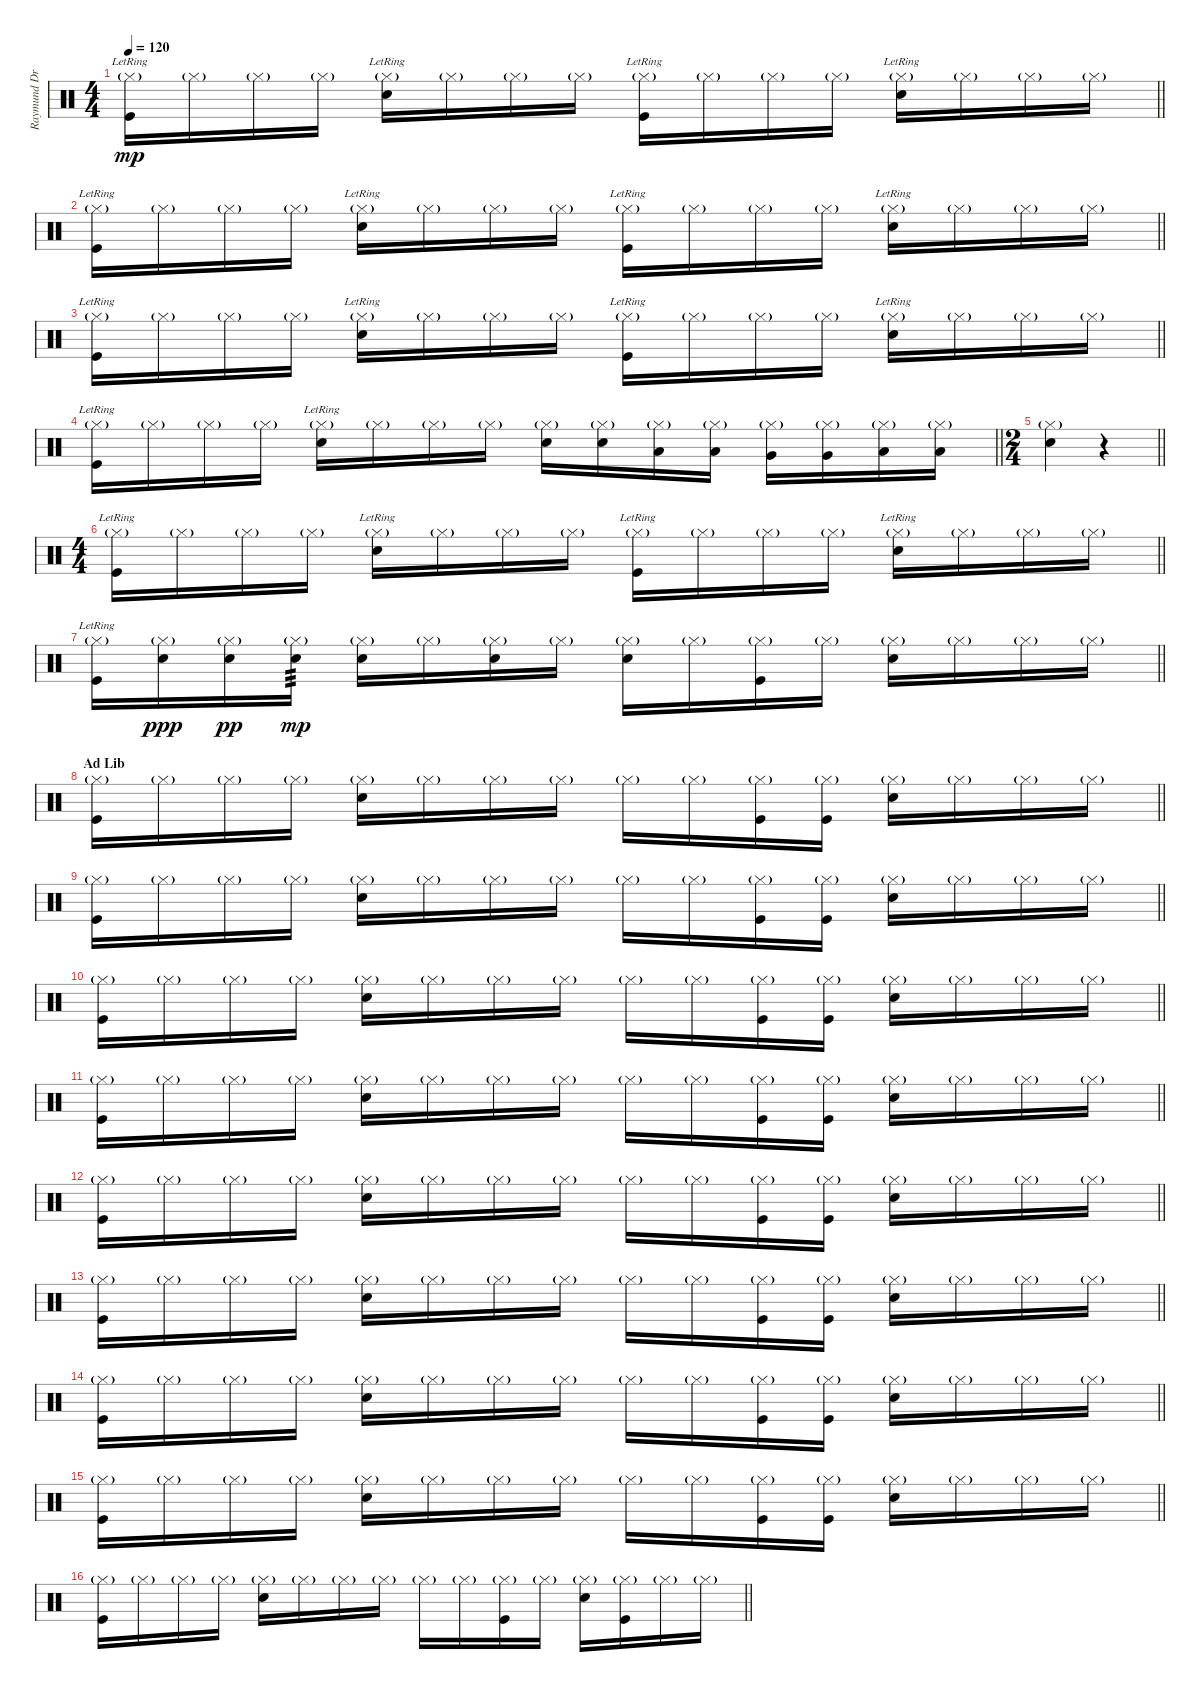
\track ("Raymund Drums" "Raymund Dr") {instrument percussion}
\staff {score}
\articulation defaults
\ts (4 4)
\tempo 120
\clef neutral
\barLineRight lightlight
\ks c
("Hi-Hat (closed)"{g} "Kick (hit)"{lr}).16{dy mp} "Hi-Hat (closed)"{g}.16 "Hi-Hat (closed)"{g}.16 "Hi-Hat (closed)"{g}.16 ("Hi-Hat (closed)"{g} "Snare (hit) 2"{lr}).16 "Hi-Hat (closed)"{g}.16 "Hi-Hat (closed)"{g}.16 "Hi-Hat (closed)"{g}.16 ("Hi-Hat (closed)"{g} "Kick (hit)"{lr}).16 "Hi-Hat (closed)"{g}.16 "Hi-Hat (closed)"{g}.16 "Hi-Hat (closed)"{g}.16 ("Hi-Hat (closed)"{g} "Snare (hit) 2"{lr}).16 "Hi-Hat (closed)"{g}.16 "Hi-Hat (closed)"{g}.16 "Hi-Hat (closed)"{g}.16 |
\barLineRight lightlight
("Hi-Hat (closed)"{g} "Kick (hit)"{lr}).16 "Hi-Hat (closed)"{g}.16 "Hi-Hat (closed)"{g}.16 "Hi-Hat (closed)"{g}.16 ("Hi-Hat (closed)"{g} "Snare (hit) 2"{lr}).16 "Hi-Hat (closed)"{g}.16 "Hi-Hat (closed)"{g}.16 "Hi-Hat (closed)"{g}.16 ("Hi-Hat (closed)"{g} "Kick (hit)"{lr}).16 "Hi-Hat (closed)"{g}.16 "Hi-Hat (closed)"{g}.16 "Hi-Hat (closed)"{g}.16 ("Hi-Hat (closed)"{g} "Snare (hit) 2"{lr}).16 "Hi-Hat (closed)"{g}.16 "Hi-Hat (closed)"{g}.16 "Hi-Hat (closed)"{g}.16 |
\barLineRight lightlight
("Hi-Hat (closed)"{g} "Kick (hit)"{lr}).16 "Hi-Hat (closed)"{g}.16 "Hi-Hat (closed)"{g}.16 "Hi-Hat (closed)"{g}.16 ("Hi-Hat (closed)"{g} "Snare (hit) 2"{lr}).16 "Hi-Hat (closed)"{g}.16 "Hi-Hat (closed)"{g}.16 "Hi-Hat (closed)"{g}.16 ("Hi-Hat (closed)"{g} "Kick (hit)"{lr}).16 "Hi-Hat (closed)"{g}.16 "Hi-Hat (closed)"{g}.16 "Hi-Hat (closed)"{g}.16 ("Hi-Hat (closed)"{g} "Snare (hit) 2"{lr}).16 "Hi-Hat (closed)"{g}.16 "Hi-Hat (closed)"{g}.16 "Hi-Hat (closed)"{g}.16 |
\barLineRight lightlight
("Hi-Hat (closed)"{g} "Kick (hit)"{lr}).16 "Hi-Hat (closed)"{g}.16 "Hi-Hat (closed)"{g}.16 "Hi-Hat (closed)"{g}.16 ("Hi-Hat (closed)"{g} "Snare (hit) 2"{lr}).16 "Hi-Hat (closed)"{g}.16 "Hi-Hat (closed)"{g}.16 "Hi-Hat (closed)"{g}.16 ("Hi-Hat (closed)"{g} "Snare (hit) 2").16 ("Hi-Hat (closed)"{g} "Snare (hit) 2").16 ("Hi-Hat (closed)"{g} "Low Tom (hit)").16 ("Hi-Hat (closed)"{g} "Low Tom (hit)").16 ("Hi-Hat (closed)"{g} "Very Low Tom (hit)").16 ("Hi-Hat (closed)"{g} "Very Low Tom (hit)").16 ("Hi-Hat (closed)"{g} "Low Floor Tom (hit)").16 ("Hi-Hat (closed)"{g} "Low Floor Tom (hit)").16 |
\ts (2 4)
\barLineRight lightlight
("Hi-Hat (closed)"{g} "Snare (hit) 2").4 r.4 |
\ts (4 4)
\barLineRight lightlight
("Hi-Hat (closed)"{g} "Kick (hit)"{lr}).16 "Hi-Hat (closed)"{g}.16 "Hi-Hat (closed)"{g}.16 "Hi-Hat (closed)"{g}.16 ("Hi-Hat (closed)"{g} "Snare (hit) 2"{lr}).16 "Hi-Hat (closed)"{g}.16 "Hi-Hat (closed)"{g}.16 "Hi-Hat (closed)"{g}.16 ("Hi-Hat (closed)"{g} "Kick (hit)"{lr}).16 "Hi-Hat (closed)"{g}.16 "Hi-Hat (closed)"{g}.16 "Hi-Hat (closed)"{g}.16 ("Hi-Hat (closed)"{g} "Snare (hit) 2"{lr}).16 "Hi-Hat (closed)"{g}.16 "Hi-Hat (closed)"{g}.16 "Hi-Hat (closed)"{g}.16 |
\barLineRight lightlight
("Hi-Hat (closed)"{g} "Kick (hit)"{lr}).16 ("Hi-Hat (closed)"{g} "Snare (hit) 2").16{dy ppp} ("Hi-Hat (closed)"{g} "Snare (hit) 2").16{dy pp} ("Hi-Hat (closed)"{g} "Snare (hit) 2").16{tp 3 dy mp} ("Hi-Hat (closed)"{g} "Snare (hit) 2").16 "Hi-Hat (closed)"{g}.16 ("Hi-Hat (closed)"{g} "Snare (hit) 2").16 "Hi-Hat (closed)"{g}.16 ("Hi-Hat (closed)"{g} "Snare (hit) 2").16 "Hi-Hat (closed)"{g}.16 ("Hi-Hat (closed)"{g} "Kick (hit)").16 "Hi-Hat (closed)"{g}.16 ("Hi-Hat (closed)"{g} "Snare (hit) 2").16 "Hi-Hat (closed)"{g}.16 "Hi-Hat (closed)"{g}.16 "Hi-Hat (closed)"{g}.16 |
\section ("" "Ad Lib")
\barLineRight lightlight
("Hi-Hat (closed)"{g} "Kick (hit)").16 "Hi-Hat (closed)"{g}.16 "Hi-Hat (closed)"{g}.16 "Hi-Hat (closed)"{g}.16 ("Hi-Hat (closed)"{g} "Snare (hit) 2").16 "Hi-Hat (closed)"{g}.16 "Hi-Hat (closed)"{g}.16 "Hi-Hat (closed)"{g}.16 "Hi-Hat (closed)"{g}.16 "Hi-Hat (closed)"{g}.16 ("Hi-Hat (closed)"{g} "Kick (hit)").16 ("Hi-Hat (closed)"{g} "Kick (hit)").16 ("Hi-Hat (closed)"{g} "Snare (hit) 2").16 "Hi-Hat (closed)"{g}.16 "Hi-Hat (closed)"{g}.16 "Hi-Hat (closed)"{g}.16 |
\barLineRight lightlight
("Hi-Hat (closed)"{g} "Kick (hit)").16 "Hi-Hat (closed)"{g}.16 "Hi-Hat (closed)"{g}.16 "Hi-Hat (closed)"{g}.16 ("Hi-Hat (closed)"{g} "Snare (hit) 2").16 "Hi-Hat (closed)"{g}.16 "Hi-Hat (closed)"{g}.16 "Hi-Hat (closed)"{g}.16 "Hi-Hat (closed)"{g}.16 "Hi-Hat (closed)"{g}.16 ("Hi-Hat (closed)"{g} "Kick (hit)").16 ("Hi-Hat (closed)"{g} "Kick (hit)").16 ("Hi-Hat (closed)"{g} "Snare (hit) 2").16 "Hi-Hat (closed)"{g}.16 "Hi-Hat (closed)"{g}.16 "Hi-Hat (closed)"{g}.16 |
\barLineRight lightlight
("Hi-Hat (closed)"{g} "Kick (hit)").16 "Hi-Hat (closed)"{g}.16 "Hi-Hat (closed)"{g}.16 "Hi-Hat (closed)"{g}.16 ("Hi-Hat (closed)"{g} "Snare (hit) 2").16 "Hi-Hat (closed)"{g}.16 "Hi-Hat (closed)"{g}.16 "Hi-Hat (closed)"{g}.16 "Hi-Hat (closed)"{g}.16 "Hi-Hat (closed)"{g}.16 ("Hi-Hat (closed)"{g} "Kick (hit)").16 ("Hi-Hat (closed)"{g} "Kick (hit)").16 ("Hi-Hat (closed)"{g} "Snare (hit) 2").16 "Hi-Hat (closed)"{g}.16 "Hi-Hat (closed)"{g}.16 "Hi-Hat (closed)"{g}.16 |
\barLineRight lightlight
("Hi-Hat (closed)"{g} "Kick (hit)").16 "Hi-Hat (closed)"{g}.16 "Hi-Hat (closed)"{g}.16 "Hi-Hat (closed)"{g}.16 ("Hi-Hat (closed)"{g} "Snare (hit) 2").16 "Hi-Hat (closed)"{g}.16 "Hi-Hat (closed)"{g}.16 "Hi-Hat (closed)"{g}.16 "Hi-Hat (closed)"{g}.16 "Hi-Hat (closed)"{g}.16 ("Hi-Hat (closed)"{g} "Kick (hit)").16 ("Hi-Hat (closed)"{g} "Kick (hit)").16 ("Hi-Hat (closed)"{g} "Snare (hit) 2").16 "Hi-Hat (closed)"{g}.16 "Hi-Hat (closed)"{g}.16 "Hi-Hat (closed)"{g}.16 |
\barLineRight lightlight
("Hi-Hat (closed)"{g} "Kick (hit)").16 "Hi-Hat (closed)"{g}.16 "Hi-Hat (closed)"{g}.16 "Hi-Hat (closed)"{g}.16 ("Hi-Hat (closed)"{g} "Snare (hit) 2").16 "Hi-Hat (closed)"{g}.16 "Hi-Hat (closed)"{g}.16 "Hi-Hat (closed)"{g}.16 "Hi-Hat (closed)"{g}.16 "Hi-Hat (closed)"{g}.16 ("Hi-Hat (closed)"{g} "Kick (hit)").16 ("Hi-Hat (closed)"{g} "Kick (hit)").16 ("Hi-Hat (closed)"{g} "Snare (hit) 2").16 "Hi-Hat (closed)"{g}.16 "Hi-Hat (closed)"{g}.16 "Hi-Hat (closed)"{g}.16 |
\barLineRight lightlight
("Hi-Hat (closed)"{g} "Kick (hit)").16 "Hi-Hat (closed)"{g}.16 "Hi-Hat (closed)"{g}.16 "Hi-Hat (closed)"{g}.16 ("Hi-Hat (closed)"{g} "Snare (hit) 2").16 "Hi-Hat (closed)"{g}.16 "Hi-Hat (closed)"{g}.16 "Hi-Hat (closed)"{g}.16 "Hi-Hat (closed)"{g}.16 "Hi-Hat (closed)"{g}.16 ("Hi-Hat (closed)"{g} "Kick (hit)").16 ("Hi-Hat (closed)"{g} "Kick (hit)").16 ("Hi-Hat (closed)"{g} "Snare (hit) 2").16 "Hi-Hat (closed)"{g}.16 "Hi-Hat (closed)"{g}.16 "Hi-Hat (closed)"{g}.16 |
\barLineRight lightlight
("Hi-Hat (closed)"{g} "Kick (hit)").16 "Hi-Hat (closed)"{g}.16 "Hi-Hat (closed)"{g}.16 "Hi-Hat (closed)"{g}.16 ("Hi-Hat (closed)"{g} "Snare (hit) 2").16 "Hi-Hat (closed)"{g}.16 "Hi-Hat (closed)"{g}.16 "Hi-Hat (closed)"{g}.16 "Hi-Hat (closed)"{g}.16 "Hi-Hat (closed)"{g}.16 ("Hi-Hat (closed)"{g} "Kick (hit)").16 ("Hi-Hat (closed)"{g} "Kick (hit)").16 ("Hi-Hat (closed)"{g} "Snare (hit) 2").16 "Hi-Hat (closed)"{g}.16 "Hi-Hat (closed)"{g}.16 "Hi-Hat (closed)"{g}.16 |
\barLineRight lightlight
("Hi-Hat (closed)"{g} "Kick (hit)").16 "Hi-Hat (closed)"{g}.16 "Hi-Hat (closed)"{g}.16 "Hi-Hat (closed)"{g}.16 ("Hi-Hat (closed)"{g} "Snare (hit) 2").16 "Hi-Hat (closed)"{g}.16 "Hi-Hat (closed)"{g}.16 "Hi-Hat (closed)"{g}.16 "Hi-Hat (closed)"{g}.16 "Hi-Hat (closed)"{g}.16 ("Hi-Hat (closed)"{g} "Kick (hit)").16 ("Hi-Hat (closed)"{g} "Kick (hit)").16 ("Hi-Hat (closed)"{g} "Snare (hit) 2").16 "Hi-Hat (closed)"{g}.16 "Hi-Hat (closed)"{g}.16 "Hi-Hat (closed)"{g}.16 |
\barLineRight lightlight
("Hi-Hat (closed)"{g} "Kick (hit)").16 "Hi-Hat (closed)"{g}.16 "Hi-Hat (closed)"{g}.16 "Hi-Hat (closed)"{g}.16 ("Hi-Hat (closed)"{g} "Snare (hit) 2").16 "Hi-Hat (closed)"{g}.16 "Hi-Hat (closed)"{g}.16 "Hi-Hat (closed)"{g}.16 "Hi-Hat (closed)"{g}.16 "Hi-Hat (closed)"{g}.16 ("Hi-Hat (closed)"{g} "Kick (hit)").16 "Hi-Hat (closed)"{g}.16 ("Hi-Hat (closed)"{g} "Snare (hit) 2").16 ("Hi-Hat (closed)"{g} "Kick (hit)").16 "Hi-Hat (closed)"{g}.16 "Hi-Hat (closed)"{g}.16
